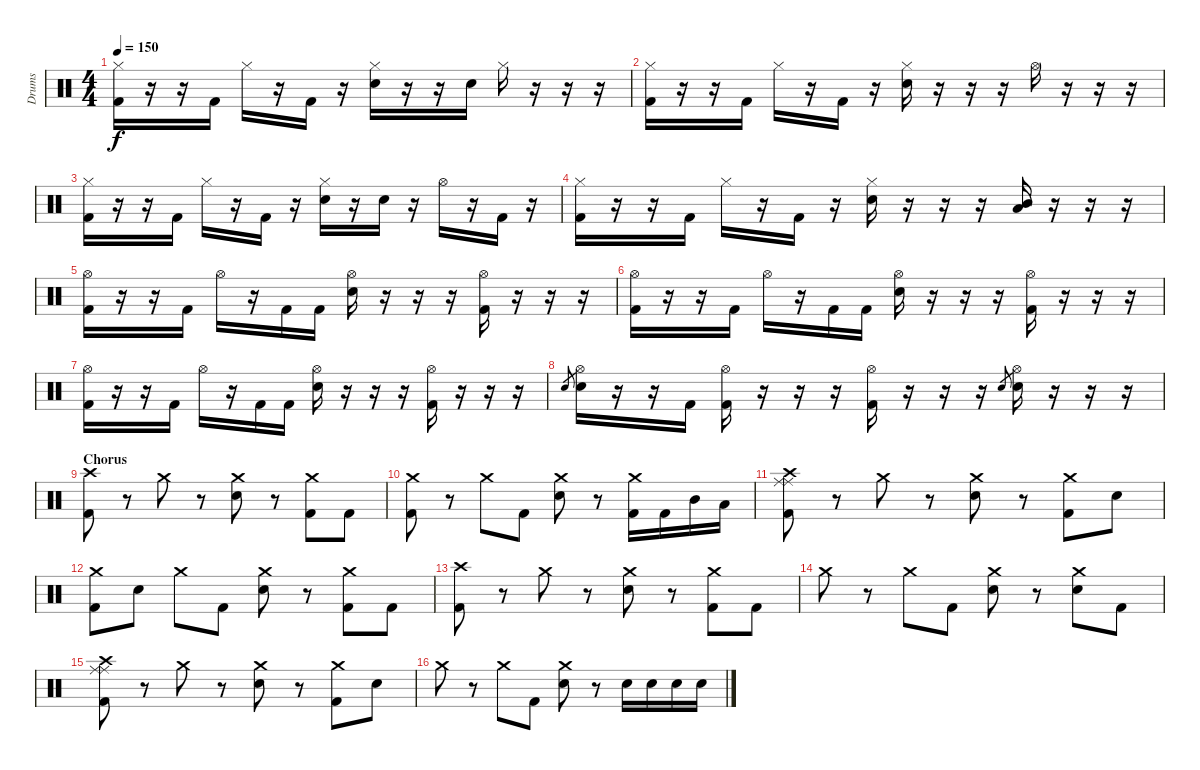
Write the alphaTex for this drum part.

\track ("Drums" "Drums") {instrument percussion}
\staff {score}
\articulation defaults
\ts (4 4)
\tempo 150
\clef neutral
\ks c
("Hi-Hat (closed)" "Kick (hit) 2").16{dy f} r.16 r.16 "Kick (hit) 2".16 "Hi-Hat (closed)".16 r.16 "Kick (hit) 2".16 r.16 ("Hi-Hat (closed)" "Electric Snare (hit)").16 r.16 r.16 "Electric Snare (hit)".16 "Hi-Hat (closed)".16 r.16 r.16 r.16 |
("Hi-Hat (closed)" "Kick (hit) 2").16 r.16 r.16 "Kick (hit) 2".16 "Hi-Hat (closed)".16 r.16 "Kick (hit) 2".16 r.16 ("Hi-Hat (closed)" "Electric Snare (hit)").16 r.16 r.16 r.16 "Hi-Hat (open)".16 r.16 r.16 r.16 |
("Hi-Hat (closed)" "Kick (hit) 2").16 r.16 r.16 "Kick (hit) 2".16 "Hi-Hat (closed)".16 r.16 "Kick (hit) 2".16 r.16 ("Hi-Hat (closed)" "Electric Snare (hit)").16 r.16 "Electric Snare (hit)".16 r.16 "Hi-Hat (open)".16 r.16 "Kick (hit) 2".16 r.16 |
("Hi-Hat (closed)" "Kick (hit) 2").16 r.16 r.16 "Kick (hit) 2".16 "Hi-Hat (closed)".16 r.16 "Kick (hit) 2".16 r.16 ("Hi-Hat (closed)" "Electric Snare (hit)").16 r.16 r.16 r.16 ("Mid Tom (hit)" "Low Floor Tom (hit)").16 r.16 r.16 r.16 |
("Hi-Hat (open)" "Kick (hit) 2").16 r.16 r.16 "Kick (hit) 2".16 "Hi-Hat (open)".16 r.16 "Kick (hit) 2".16 "Kick (hit) 2".16 ("Hi-Hat (open)" "Electric Snare (hit)").16 r.16 r.16 r.16 ("Hi-Hat (open)" "Kick (hit) 2").16 r.16 r.16 r.16 |
("Hi-Hat (open)" "Kick (hit) 2").16 r.16 r.16 "Kick (hit) 2".16 "Hi-Hat (open)".16 r.16 "Kick (hit) 2".16 "Kick (hit) 2".16 ("Hi-Hat (open)" "Electric Snare (hit)").16 r.16 r.16 r.16 ("Hi-Hat (open)" "Kick (hit) 2").16 r.16 r.16 r.16 |
("Hi-Hat (open)" "Kick (hit) 2").16 r.16 r.16 "Kick (hit) 2".16 "Hi-Hat (open)".16 r.16 "Kick (hit) 2".16 "Kick (hit) 2".16 ("Hi-Hat (open)" "Electric Snare (hit)").16 r.16 r.16 r.16 ("Hi-Hat (open)" "Kick (hit) 2").16 r.16 r.16 r.16 |
"Electric Snare (hit)".8{gr} ("Hi-Hat (open)" "Electric Snare (hit)").16 r.16 r.16 "Kick (hit) 2".16 ("Hi-Hat (open)" "Kick (hit) 2").16 r.16 r.16 r.16 ("Hi-Hat (open)" "Kick (hit) 2").16 r.16 r.16 r.16 "Electric Snare (hit)".8{gr} ("Hi-Hat (open)" "Electric Snare (hit)").16 r.16 r.16 r.16 |
\section ("" "Chorus")
("Crash high (hit)" "Kick (hit) 2").8 r.8 "Crash medium (hit)".8 r.8 ("Crash medium (hit)" "Electric Snare (hit)").8 r.8 ("Crash medium (hit)" "Kick (hit) 2").8 "Kick (hit) 2".8 |
("Crash medium (hit)" "Kick (hit) 2").8 r.8 "Crash medium (hit)".8 "Kick (hit) 2".8 ("Crash medium (hit)" "Electric Snare (hit)").8 r.8 ("Crash medium (hit)" "Kick (hit) 2").16 "Kick (hit) 2".16 "Mid Tom (hit)".16 "Low Floor Tom (hit)".16 |
("Crash high (hit)" "Ride (middle)" "Ride (middle)" "Kick (hit) 2").8 r.8 "Crash medium (hit)".8 r.8 ("Crash medium (hit)" "Electric Snare (hit)").8 r.8 ("Crash medium (hit)" "Kick (hit) 2").8 "Electric Snare (hit)".8 |
("Crash medium (hit)" "Kick (hit) 2").8 "Electric Snare (hit)".8 "Crash medium (hit)".8 "Kick (hit) 2".8 ("Crash medium (hit)" "Electric Snare (hit)").8 r.8 ("Crash medium (hit)" "Kick (hit) 2").8 "Kick (hit) 2".8 |
("Crash high (hit)" "Kick (hit) 2").8 r.8 "Crash medium (hit)".8 r.8 ("Crash medium (hit)" "Electric Snare (hit)").8 r.8 ("Crash medium (hit)" "Kick (hit) 2").8 "Kick (hit) 2".8 |
"Crash medium (hit)".8 r.8 "Crash medium (hit)".8 "Kick (hit) 2".8 ("Crash medium (hit)" "Electric Snare (hit)").8 r.8 ("Crash medium (hit)" "Electric Snare (hit)").8 "Kick (hit) 2".8 |
("Crash high (hit)" "Ride (middle)" "Ride (middle)" "Kick (hit) 2").8 r.8 "Crash medium (hit)".8 r.8 ("Crash medium (hit)" "Electric Snare (hit)").8 r.8 ("Crash medium (hit)" "Kick (hit) 2").8 "Electric Snare (hit)".8 |
"Crash medium (hit)".8 r.8 "Crash medium (hit)".8 "Kick (hit) 2".8 ("Crash medium (hit)" "Electric Snare (hit)").8 r.8 "Electric Snare (hit)".16 "Electric Snare (hit)".16 "Electric Snare (hit)".16 "Electric Snare (hit)".16
